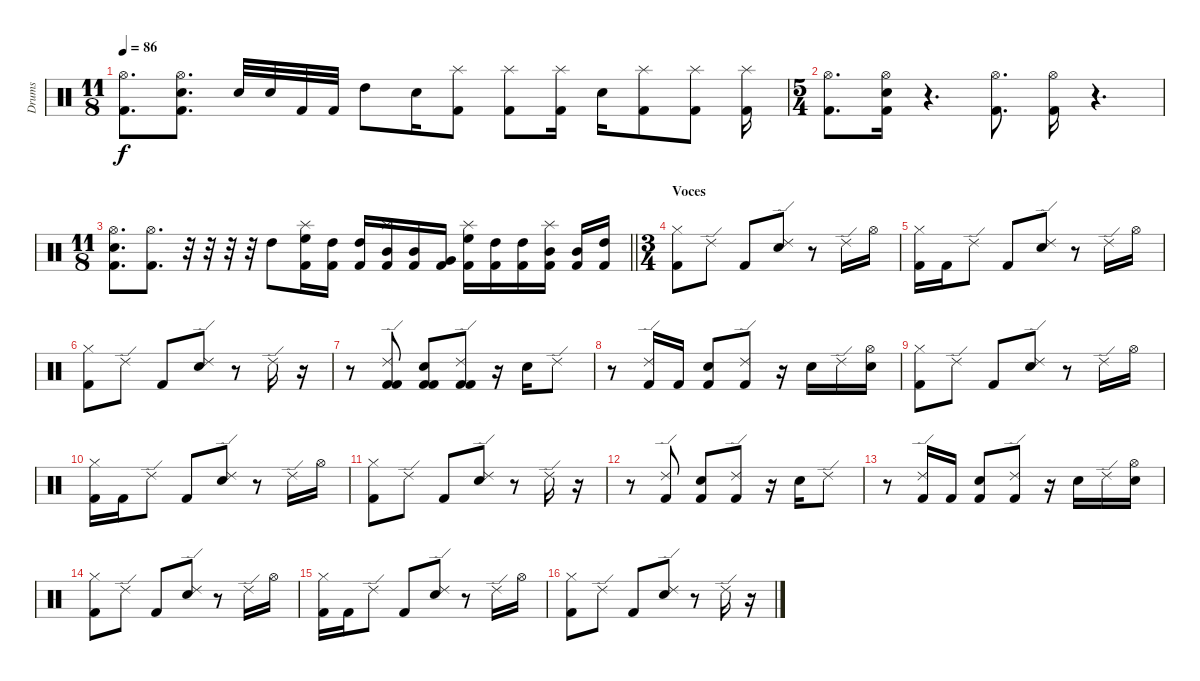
\track ("Drums" "Drums") {instrument percussion}
\staff {score}
\articulation defaults
\ts (11 8)
\tempo 86
\clef neutral
\ks c
("Hi-Hat (open)" "Kick (hit) 2").8{d dy f} ("Hi-Hat (open)" "Electric Snare (hit)" "Kick (hit) 2").8{d} "Electric Snare (hit)".32 "Electric Snare (hit)".32 "Kick (hit) 2".32 "Kick (hit) 2".32 "High Tom (hit)".8 "Electric Snare (hit)".16 ("Splash (hit)" "Kick (hit) 2").8 ("Splash (hit)" "Kick (hit) 2").8 ("Splash (hit)" "Kick (hit) 2").16 "Electric Snare (hit)".16 ("Splash (hit)" "Kick (hit) 2").8 ("Splash (hit)" "Kick (hit) 2").8 ("Splash (hit)" "Kick (hit) 2").16 |
\ts (5 4)
("Hi-Hat (open)" "Kick (hit) 2").8{d} ("Hi-Hat (open)" "Electric Snare (hit)" "Kick (hit) 2").16 r.4{d} ("Hi-Hat (open)" "Kick (hit) 2").8{d} ("Hi-Hat (open)" "Kick (hit) 2").16 r.4{d} |
\ts (11 8)
\barLineRight lightlight
("Hi-Hat (open)" "Electric Snare (hit)" "Kick (hit) 2").8{d} ("Hi-Hat (open)" "Kick (hit) 2").8{d} r.32 r.32 r.32 r.32 "High Tom (hit)".8 ("Splash (hit)" "High Floor Tom (hit)" "Kick (hit) 2").16 ("High Tom (hit)" "Kick (hit) 2").16 ("High Tom (hit)" "Kick (hit) 2").16 ("Splash (hit)" "Mid Tom (hit)" "Kick (hit) 2").16 ("Mid Tom (hit)" "Kick (hit) 2").16 ("Very Low Tom (hit)" "Kick (hit) 2").16 ("Splash (hit)" "High Floor Tom (hit)" "Kick (hit) 2").16 ("High Tom (hit)" "Kick (hit) 2").16 ("High Tom (hit)" "Kick (hit) 2").16 ("Splash (hit)" "Mid Tom (hit)" "Kick (hit) 2").16 ("Mid Tom (hit)" "Kick (hit) 2").16 ("High Tom (hit)" "Kick (hit) 2").16 |
\ts (3 4)
\section ("" "Voces")
("Hi-Hat (closed)" "Kick (hit) 2").8 "Ride (edge) 2".8 "Kick (hit) 2".8 ("Ride (edge) 2" "Electric Snare (hit)").8 r.8 "Ride (edge) 2".16 "Hi-Hat (open)".16 |
("Hi-Hat (closed)" "Kick (hit) 2").16 "Kick (hit) 2".16 "Ride (edge) 2".8 "Kick (hit) 2".8 ("Ride (edge) 2" "Electric Snare (hit)").8 r.8 "Ride (edge) 2".16 "Hi-Hat (open)".16 |
("Hi-Hat (closed)" "Kick (hit) 2").8 "Ride (edge) 2".8 "Kick (hit) 2".8 ("Ride (edge) 2" "Electric Snare (hit)").8 r.8 "Ride (edge) 2".16 r.16 |
r.8 ("Ride (edge) 2" "Kick (hit) 2" "Kick (hit) 2").8 ("Electric Snare (hit)" "Kick (hit) 2" "Kick (hit) 2").8 ("Ride (edge) 2" "Kick (hit) 2" "Kick (hit) 2").8 r.16 "Electric Snare (hit)".16 "Ride (edge) 2".8 |
r.8 ("Ride (edge) 2" "Kick (hit) 2").16 "Kick (hit) 2".16 ("Electric Snare (hit)" "Kick (hit) 2").8 ("Ride (edge) 2" "Kick (hit) 2").8 r.16 "Electric Snare (hit)".16 "Ride (edge) 2".16 ("Hi-Hat (open)" "Electric Snare (hit)").16 |
("Hi-Hat (closed)" "Kick (hit) 2").8 "Ride (edge) 2".8 "Kick (hit) 2".8 ("Ride (edge) 2" "Electric Snare (hit)").8 r.8 "Ride (edge) 2".16 "Hi-Hat (open)".16 |
("Hi-Hat (closed)" "Kick (hit) 2").16 "Kick (hit) 2".16 "Ride (edge) 2".8 "Kick (hit) 2".8 ("Ride (edge) 2" "Electric Snare (hit)").8 r.8 "Ride (edge) 2".16 "Hi-Hat (open)".16 |
("Hi-Hat (closed)" "Kick (hit) 2").8 "Ride (edge) 2".8 "Kick (hit) 2".8 ("Ride (edge) 2" "Electric Snare (hit)").8 r.8 "Ride (edge) 2".16 r.16 |
r.8 ("Ride (edge) 2" "Kick (hit) 2").8 ("Electric Snare (hit)" "Kick (hit) 2").8 ("Ride (edge) 2" "Kick (hit) 2").8 r.16 "Electric Snare (hit)".16 "Ride (edge) 2".8 |
r.8 ("Ride (edge) 2" "Kick (hit) 2").16 "Kick (hit) 2".16 ("Electric Snare (hit)" "Kick (hit) 2").8 ("Ride (edge) 2" "Kick (hit) 2").8 r.16 "Electric Snare (hit)".16 "Ride (edge) 2".16 ("Hi-Hat (open)" "Electric Snare (hit)").16 |
("Hi-Hat (closed)" "Kick (hit) 2").8 "Ride (edge) 2".8 "Kick (hit) 2".8 ("Ride (edge) 2" "Electric Snare (hit)").8 r.8 "Ride (edge) 2".16 "Hi-Hat (open)".16 |
("Hi-Hat (closed)" "Kick (hit) 2").16 "Kick (hit) 2".16 "Ride (edge) 2".8 "Kick (hit) 2".8 ("Ride (edge) 2" "Electric Snare (hit)").8 r.8 "Ride (edge) 2".16 "Hi-Hat (open)".16 |
("Hi-Hat (closed)" "Kick (hit) 2").8 "Ride (edge) 2".8 "Kick (hit) 2".8 ("Ride (edge) 2" "Electric Snare (hit)").8 r.8 "Ride (edge) 2".16 r.16
